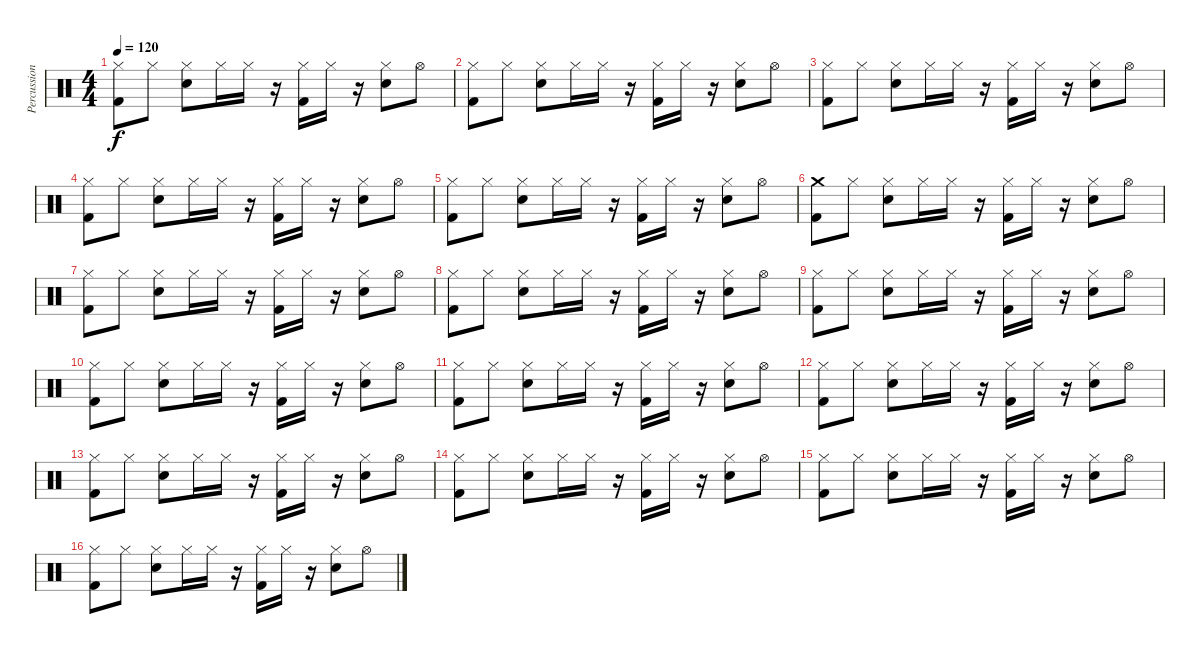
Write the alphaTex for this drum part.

\track ("Percussions" "Percussion") {instrument percussion}
\staff {score}
\articulation defaults
\ts (4 4)
\tempo 120
\clef neutral
\ks c
("Hi-Hat (closed)" "Kick (hit) 2").8{dy f} "Hi-Hat (closed)".8 ("Hi-Hat (closed)" "Snare (hit) 2").8 "Hi-Hat (closed)".16 "Hi-Hat (closed)".16 r.16 ("Hi-Hat (closed)" "Kick (hit) 2").16 "Hi-Hat (closed)".16 r.16 ("Hi-Hat (closed)" "Snare (hit) 2").8 "Hi-Hat (open)".8 |
("Hi-Hat (closed)" "Kick (hit) 2").8 "Hi-Hat (closed)".8 ("Hi-Hat (closed)" "Snare (hit) 2").8 "Hi-Hat (closed)".16 "Hi-Hat (closed)".16 r.16 ("Hi-Hat (closed)" "Kick (hit) 2").16 "Hi-Hat (closed)".16 r.16 ("Hi-Hat (closed)" "Snare (hit) 2").8 "Hi-Hat (open)".8 |
("Hi-Hat (closed)" "Kick (hit) 2").8 "Hi-Hat (closed)".8 ("Hi-Hat (closed)" "Snare (hit) 2").8 "Hi-Hat (closed)".16 "Hi-Hat (closed)".16 r.16 ("Hi-Hat (closed)" "Kick (hit) 2").16 "Hi-Hat (closed)".16 r.16 ("Hi-Hat (closed)" "Snare (hit) 2").8 "Hi-Hat (open)".8 |
("Hi-Hat (closed)" "Kick (hit) 2").8 "Hi-Hat (closed)".8 ("Hi-Hat (closed)" "Snare (hit) 2").8 "Hi-Hat (closed)".16 "Hi-Hat (closed)".16 r.16 ("Hi-Hat (closed)" "Kick (hit) 2").16 "Hi-Hat (closed)".16 r.16 ("Hi-Hat (closed)" "Snare (hit) 2").8 "Hi-Hat (open)".8 |
("Hi-Hat (closed)" "Kick (hit) 2").8 "Hi-Hat (closed)".8 ("Hi-Hat (closed)" "Snare (hit) 2").8 "Hi-Hat (closed)".16 "Hi-Hat (closed)".16 r.16 ("Hi-Hat (closed)" "Kick (hit) 2").16 "Hi-Hat (closed)".16 r.16 ("Hi-Hat (closed)" "Snare (hit) 2").8 "Hi-Hat (open)".8 |
("Crash medium (hit)" "Kick (hit) 2").8 "Hi-Hat (closed)".8 ("Hi-Hat (closed)" "Snare (hit) 2").8 "Hi-Hat (closed)".16 "Hi-Hat (closed)".16 r.16 ("Hi-Hat (closed)" "Kick (hit) 2").16 "Hi-Hat (closed)".16 r.16 ("Hi-Hat (closed)" "Snare (hit) 2").8 "Hi-Hat (open)".8 |
("Hi-Hat (closed)" "Kick (hit) 2").8 "Hi-Hat (closed)".8 ("Hi-Hat (closed)" "Snare (hit) 2").8 "Hi-Hat (closed)".16 "Hi-Hat (closed)".16 r.16 ("Hi-Hat (closed)" "Kick (hit) 2").16 "Hi-Hat (closed)".16 r.16 ("Hi-Hat (closed)" "Snare (hit) 2").8 "Hi-Hat (open)".8 |
("Hi-Hat (closed)" "Kick (hit) 2").8 "Hi-Hat (closed)".8 ("Hi-Hat (closed)" "Snare (hit) 2").8 "Hi-Hat (closed)".16 "Hi-Hat (closed)".16 r.16 ("Hi-Hat (closed)" "Kick (hit) 2").16 "Hi-Hat (closed)".16 r.16 ("Hi-Hat (closed)" "Snare (hit) 2").8 "Hi-Hat (open)".8 |
("Hi-Hat (closed)" "Kick (hit) 2").8 "Hi-Hat (closed)".8 ("Hi-Hat (closed)" "Snare (hit) 2").8 "Hi-Hat (closed)".16 "Hi-Hat (closed)".16 r.16 ("Hi-Hat (closed)" "Kick (hit) 2").16 "Hi-Hat (closed)".16 r.16 ("Hi-Hat (closed)" "Snare (hit) 2").8 "Hi-Hat (open)".8 |
("Hi-Hat (closed)" "Kick (hit) 2").8 "Hi-Hat (closed)".8 ("Hi-Hat (closed)" "Snare (hit) 2").8 "Hi-Hat (closed)".16 "Hi-Hat (closed)".16 r.16 ("Hi-Hat (closed)" "Kick (hit) 2").16 "Hi-Hat (closed)".16 r.16 ("Hi-Hat (closed)" "Snare (hit) 2").8 "Hi-Hat (open)".8 |
("Hi-Hat (closed)" "Kick (hit) 2").8 "Hi-Hat (closed)".8 ("Hi-Hat (closed)" "Snare (hit) 2").8 "Hi-Hat (closed)".16 "Hi-Hat (closed)".16 r.16 ("Hi-Hat (closed)" "Kick (hit) 2").16 "Hi-Hat (closed)".16 r.16 ("Hi-Hat (closed)" "Snare (hit) 2").8 "Hi-Hat (open)".8 |
("Hi-Hat (closed)" "Kick (hit) 2").8 "Hi-Hat (closed)".8 ("Hi-Hat (closed)" "Snare (hit) 2").8 "Hi-Hat (closed)".16 "Hi-Hat (closed)".16 r.16 ("Hi-Hat (closed)" "Kick (hit) 2").16 "Hi-Hat (closed)".16 r.16 ("Hi-Hat (closed)" "Snare (hit) 2").8 "Hi-Hat (open)".8 |
("Hi-Hat (closed)" "Kick (hit) 2").8 "Hi-Hat (closed)".8 ("Hi-Hat (closed)" "Snare (hit) 2").8 "Hi-Hat (closed)".16 "Hi-Hat (closed)".16 r.16 ("Hi-Hat (closed)" "Kick (hit) 2").16 "Hi-Hat (closed)".16 r.16 ("Hi-Hat (closed)" "Snare (hit) 2").8 "Hi-Hat (open)".8 |
("Hi-Hat (closed)" "Kick (hit) 2").8 "Hi-Hat (closed)".8 ("Hi-Hat (closed)" "Snare (hit) 2").8 "Hi-Hat (closed)".16 "Hi-Hat (closed)".16 r.16 ("Hi-Hat (closed)" "Kick (hit) 2").16 "Hi-Hat (closed)".16 r.16 ("Hi-Hat (closed)" "Snare (hit) 2").8 "Hi-Hat (open)".8 |
("Hi-Hat (closed)" "Kick (hit) 2").8 "Hi-Hat (closed)".8 ("Hi-Hat (closed)" "Snare (hit) 2").8 "Hi-Hat (closed)".16 "Hi-Hat (closed)".16 r.16 ("Hi-Hat (closed)" "Kick (hit) 2").16 "Hi-Hat (closed)".16 r.16 ("Hi-Hat (closed)" "Snare (hit) 2").8 "Hi-Hat (open)".8 |
("Hi-Hat (closed)" "Kick (hit) 2").8 "Hi-Hat (closed)".8 ("Hi-Hat (closed)" "Snare (hit) 2").8 "Hi-Hat (closed)".16 "Hi-Hat (closed)".16 r.16 ("Hi-Hat (closed)" "Kick (hit) 2").16 "Hi-Hat (closed)".16 r.16 ("Hi-Hat (closed)" "Snare (hit) 2").8 "Hi-Hat (open)".8
